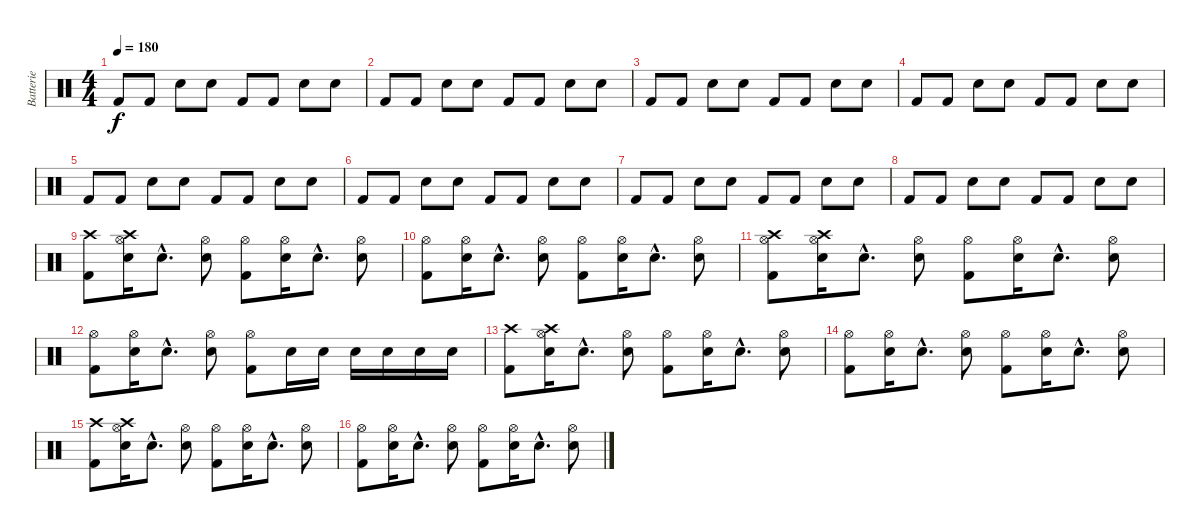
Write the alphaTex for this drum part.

\track ("Batterie" "Batterie") {instrument percussion}
\staff {score}
\articulation defaults
\ts (4 4)
\tempo 180
\clef neutral
\ks c "Kick (hit) 2".8{dy f} "Kick (hit) 2".8 "Electric Snare (hit)".8 "Electric Snare (hit)".8 "Kick (hit) 2".8 "Kick (hit) 2".8 "Electric Snare (hit)".8 "Electric Snare (hit)".8
|
"Kick (hit) 2".8 "Kick (hit) 2".8 "Electric Snare (hit)".8 "Electric Snare (hit)".8 "Kick (hit) 2".8 "Kick (hit) 2".8 "Electric Snare (hit)".8 "Electric Snare (hit)".8 |
"Kick (hit) 2".8 "Kick (hit) 2".8 "Electric Snare (hit)".8 "Electric Snare (hit)".8 "Kick (hit) 2".8 "Kick (hit) 2".8 "Electric Snare (hit)".8 "Electric Snare (hit)".8 |
"Kick (hit) 2".8 "Kick (hit) 2".8 "Electric Snare (hit)".8 "Electric Snare (hit)".8 "Kick (hit) 2".8 "Kick (hit) 2".8 "Electric Snare (hit)".8 "Electric Snare (hit)".8 |
"Kick (hit) 2".8 "Kick (hit) 2".8 "Electric Snare (hit)".8 "Electric Snare (hit)".8 "Kick (hit) 2".8 "Kick (hit) 2".8 "Electric Snare (hit)".8 "Electric Snare (hit)".8 |
"Kick (hit) 2".8 "Kick (hit) 2".8 "Electric Snare (hit)".8 "Electric Snare (hit)".8 "Kick (hit) 2".8 "Kick (hit) 2".8 "Electric Snare (hit)".8 "Electric Snare (hit)".8 |
"Kick (hit) 2".8 "Kick (hit) 2".8 "Electric Snare (hit)".8 "Electric Snare (hit)".8 "Kick (hit) 2".8 "Kick (hit) 2".8 "Electric Snare (hit)".8 "Electric Snare (hit)".8 |
"Kick (hit) 2".8 "Kick (hit) 2".8 "Electric Snare (hit)".8 "Electric Snare (hit)".8 "Kick (hit) 2".8 "Kick (hit) 2".8 "Electric Snare (hit)".8 "Electric Snare (hit)".8 |
("Crash high (hit)" "Kick (hit) 2").8 ("Crash high (hit)" "Hi-Hat (open)" "Electric Snare (hit)").16 "Electric Snare (hit)"{hac}.8{d} ("Hi-Hat (open)" "Electric Snare (hit)").8 ("Hi-Hat (open)" "Kick (hit) 2").8 ("Hi-Hat (open)" "Electric Snare (hit)").16 "Electric Snare (hit)"{hac}.8{d} ("Hi-Hat (open)" "Electric Snare (hit)").8 |
("Hi-Hat (open)" "Kick (hit) 2").8 ("Hi-Hat (open)" "Electric Snare (hit)").16 "Electric Snare (hit)"{hac}.8{d} ("Hi-Hat (open)" "Electric Snare (hit)").8 ("Hi-Hat (open)" "Kick (hit) 2").8 ("Hi-Hat (open)" "Electric Snare (hit)").16 "Electric Snare (hit)"{hac}.8{d} ("Hi-Hat (open)" "Electric Snare (hit)").8 |
("Crash high (hit)" "Hi-Hat (open)" "Kick (hit) 2").8 ("Crash high (hit)" "Hi-Hat (open)" "Electric Snare (hit)").16 "Electric Snare (hit)"{hac}.8{d} ("Hi-Hat (open)" "Electric Snare (hit)").8 ("Hi-Hat (open)" "Kick (hit) 2").8 ("Hi-Hat (open)" "Electric Snare (hit)").16 "Electric Snare (hit)"{hac}.8{d} ("Hi-Hat (open)" "Electric Snare (hit)").8 |
("Hi-Hat (open)" "Kick (hit) 2").8 ("Hi-Hat (open)" "Electric Snare (hit)").16 "Electric Snare (hit)"{hac}.8{d} ("Hi-Hat (open)" "Electric Snare (hit)").8 ("Hi-Hat (open)" "Kick (hit) 2").8 "Electric Snare (hit)".16 "Electric Snare (hit)".16 "Electric Snare (hit)".16 "Electric Snare (hit)".16 "Electric Snare (hit)".16 "Electric Snare (hit)".16 |
("Crash high (hit)" "Kick (hit) 2").8 ("Crash high (hit)" "Hi-Hat (open)" "Electric Snare (hit)").16 "Electric Snare (hit)"{hac}.8{d} ("Hi-Hat (open)" "Electric Snare (hit)").8 ("Hi-Hat (open)" "Kick (hit) 2").8 ("Hi-Hat (open)" "Electric Snare (hit)").16 "Electric Snare (hit)"{hac}.8{d} ("Hi-Hat (open)" "Electric Snare (hit)").8 |
("Hi-Hat (open)" "Kick (hit) 2").8 ("Hi-Hat (open)" "Electric Snare (hit)").16 "Electric Snare (hit)"{hac}.8{d} ("Hi-Hat (open)" "Electric Snare (hit)").8 ("Hi-Hat (open)" "Kick (hit) 2").8 ("Hi-Hat (open)" "Electric Snare (hit)").16 "Electric Snare (hit)"{hac}.8{d} ("Hi-Hat (open)" "Electric Snare (hit)").8 |
("Crash high (hit)" "Kick (hit) 2").8 ("Crash high (hit)" "Hi-Hat (open)" "Electric Snare (hit)").16 "Electric Snare (hit)"{hac}.8{d} ("Hi-Hat (open)" "Electric Snare (hit)").8 ("Hi-Hat (open)" "Kick (hit) 2").8 ("Hi-Hat (open)" "Electric Snare (hit)").16 "Electric Snare (hit)"{hac}.8{d} ("Hi-Hat (open)" "Electric Snare (hit)").8 |
("Hi-Hat (open)" "Kick (hit) 2").8 ("Hi-Hat (open)" "Electric Snare (hit)").16 "Electric Snare (hit)"{hac}.8{d} ("Hi-Hat (open)" "Electric Snare (hit)").8 ("Hi-Hat (open)" "Kick (hit) 2").8 ("Hi-Hat (open)" "Electric Snare (hit)").16 "Electric Snare (hit)"{hac}.8{d} ("Hi-Hat (open)" "Electric Snare (hit)").8
